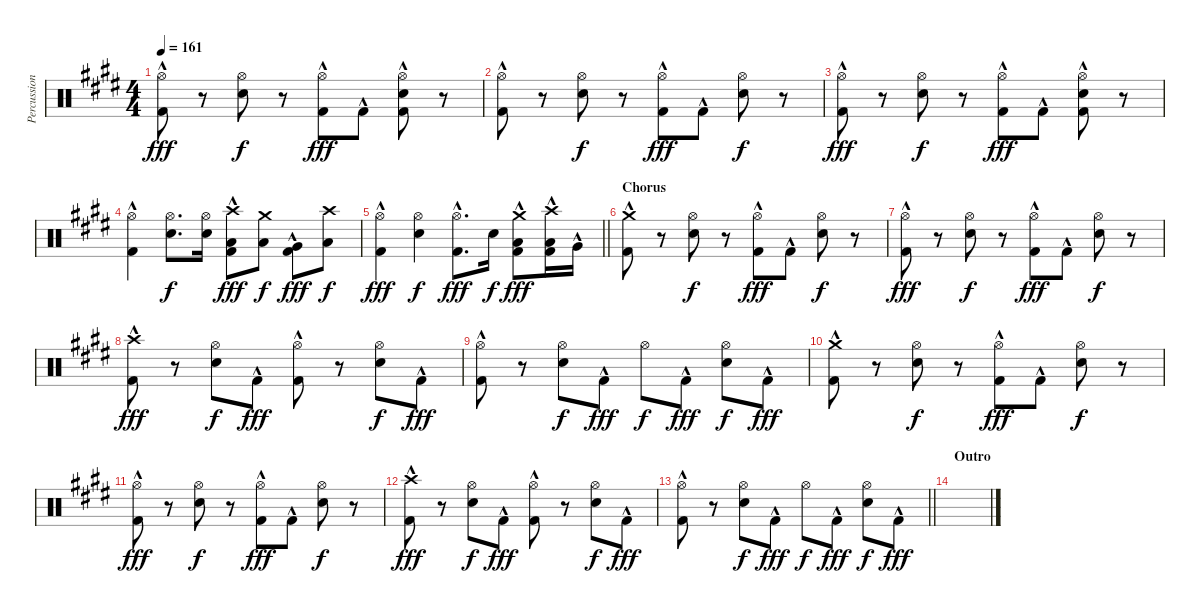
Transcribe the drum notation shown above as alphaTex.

\track ("Percussion" "Percussion") {instrument percussion}
\staff
\articulation defaults
\ts (4 4)
\tempo 161
\clef neutral
\ks e
("Hi-Hat (open)" "Kick (hit) 2"{hac}).8{dy fff} r.8 ("Hi-Hat (open)" "Snare (hit) 2").8{dy f} r.8 ("Hi-Hat (open)" "Kick (hit) 2"{hac}).8{dy fff} "Kick (hit) 2"{hac}.8 ("Hi-Hat (open)" "Snare (hit) 2" "Kick (hit) 2"{hac}).8 r.8 |
("Hi-Hat (open)" "Kick (hit) 2"{hac}).8 r.8 ("Hi-Hat (open)" "Snare (hit) 2").8{dy f} r.8 ("Hi-Hat (open)" "Kick (hit) 2"{hac}).8{dy fff} "Kick (hit) 2"{hac}.8 ("Hi-Hat (open)" "Snare (hit) 2").8{dy f} r.8 |
("Hi-Hat (open)" "Kick (hit) 2"{hac}).8{dy fff} r.8 ("Hi-Hat (open)" "Snare (hit) 2").8{dy f} r.8 ("Hi-Hat (open)" "Kick (hit) 2"{hac}).8{dy fff} "Kick (hit) 2"{hac}.8 ("Hi-Hat (open)" "Snare (hit) 2" "Kick (hit) 2"{hac}).8 r.8 |
("Hi-Hat (open)" "Kick (hit) 2"{hac}).4 ("Hi-Hat (open)" "Snare (hit) 2").8{d dy f} ("Hi-Hat (open)" "Snare (hit) 2").16 ("Crash high (hit)" "Low Tom (hit)" "Kick (hit) 2"{hac}).8{dy fff} ("Crash medium (hit)" "Low Tom (hit)").8{dy f} ("Very Low Tom (hit)" "Kick (hit) 2"{hac}).8{dy fff} ("Crash high (hit)" "Low Floor Tom (hit)").8{dy f} |
\barLineRight lightlight
("Hi-Hat (open)" "Kick (hit) 2"{hac}).4{dy fff} ("Hi-Hat (open)" "Snare (hit) 2").4{dy f} ("Hi-Hat (open)" "Kick (hit) 2"{hac}).8{d dy fff} "Snare (hit) 2".16{dy f} ("Crash medium (hit)" "Low Tom (hit)" "Kick (hit) 2"{hac}).8{dy fff} ("Crash high (hit)"{hac} "Low Tom (hit)"{hac} "Kick (hit) 2"{hac}).16 "Very Low Tom (hit)"{hac}.16 |
\section ("" "Chorus")
("Crash medium (hit)" "Kick (hit) 2"{hac}).8 r.8 ("Hi-Hat (open)" "Snare (hit) 2").8{dy f} r.8 ("Hi-Hat (open)" "Kick (hit) 2"{hac}).8{dy fff} "Kick (hit) 2"{hac}.8 ("Hi-Hat (open)" "Snare (hit) 2").8{dy f} r.8 |
("Hi-Hat (open)" "Kick (hit) 2"{hac}).8{dy fff} r.8 ("Hi-Hat (open)" "Snare (hit) 2").8{dy f} r.8 ("Hi-Hat (open)" "Kick (hit) 2"{hac}).8{dy fff} "Kick (hit) 2"{hac}.8 ("Hi-Hat (open)" "Snare (hit) 2").8{dy f} r.8 |
("Crash high (hit)" "Kick (hit) 2"{hac}).8{dy fff} r.8 ("Hi-Hat (open)" "Snare (hit) 2").8{dy f} "Kick (hit) 2"{hac}.8{dy fff} ("Hi-Hat (open)" "Kick (hit) 2"{hac}).8 r.8 ("Hi-Hat (open)" "Snare (hit) 2").8{dy f} "Kick (hit) 2"{hac}.8{dy fff} |
("Hi-Hat (open)" "Kick (hit) 2"{hac}).8 r.8 ("Hi-Hat (open)" "Snare (hit) 2").8{dy f} "Kick (hit) 2"{hac}.8{dy fff} "Hi-Hat (open)".8{dy f} "Kick (hit) 2"{hac}.8{dy fff} ("Hi-Hat (open)" "Snare (hit) 2").8{dy f} "Kick (hit) 2"{hac}.8{dy fff} |
("Crash medium (hit)" "Kick (hit) 2"{hac}).8 r.8 ("Hi-Hat (open)" "Snare (hit) 2").8{dy f} r.8 ("Hi-Hat (open)" "Kick (hit) 2"{hac}).8{dy fff} "Kick (hit) 2"{hac}.8 ("Hi-Hat (open)" "Snare (hit) 2").8{dy f} r.8 |
("Hi-Hat (open)" "Kick (hit) 2"{hac}).8{dy fff} r.8 ("Hi-Hat (open)" "Snare (hit) 2").8{dy f} r.8 ("Hi-Hat (open)" "Kick (hit) 2"{hac}).8{dy fff} "Kick (hit) 2"{hac}.8 ("Hi-Hat (open)" "Snare (hit) 2").8{dy f} r.8 |
("Crash high (hit)" "Kick (hit) 2"{hac}).8{dy fff} r.8 ("Hi-Hat (open)" "Snare (hit) 2").8{dy f} "Kick (hit) 2"{hac}.8{dy fff} ("Hi-Hat (open)" "Kick (hit) 2"{hac}).8 r.8 ("Hi-Hat (open)" "Snare (hit) 2").8{dy f} "Kick (hit) 2"{hac}.8{dy fff} |
\barLineRight lightlight
("Hi-Hat (open)" "Kick (hit) 2"{hac}).8 r.8 ("Hi-Hat (open)" "Snare (hit) 2").8{dy f} "Kick (hit) 2"{hac}.8{dy fff} "Hi-Hat (open)".8{dy f} "Kick (hit) 2"{hac}.8{dy fff} ("Hi-Hat (open)" "Snare (hit) 2").8{dy f} "Kick (hit) 2"{hac}.8{dy fff} |
\section ("" "Outro")
